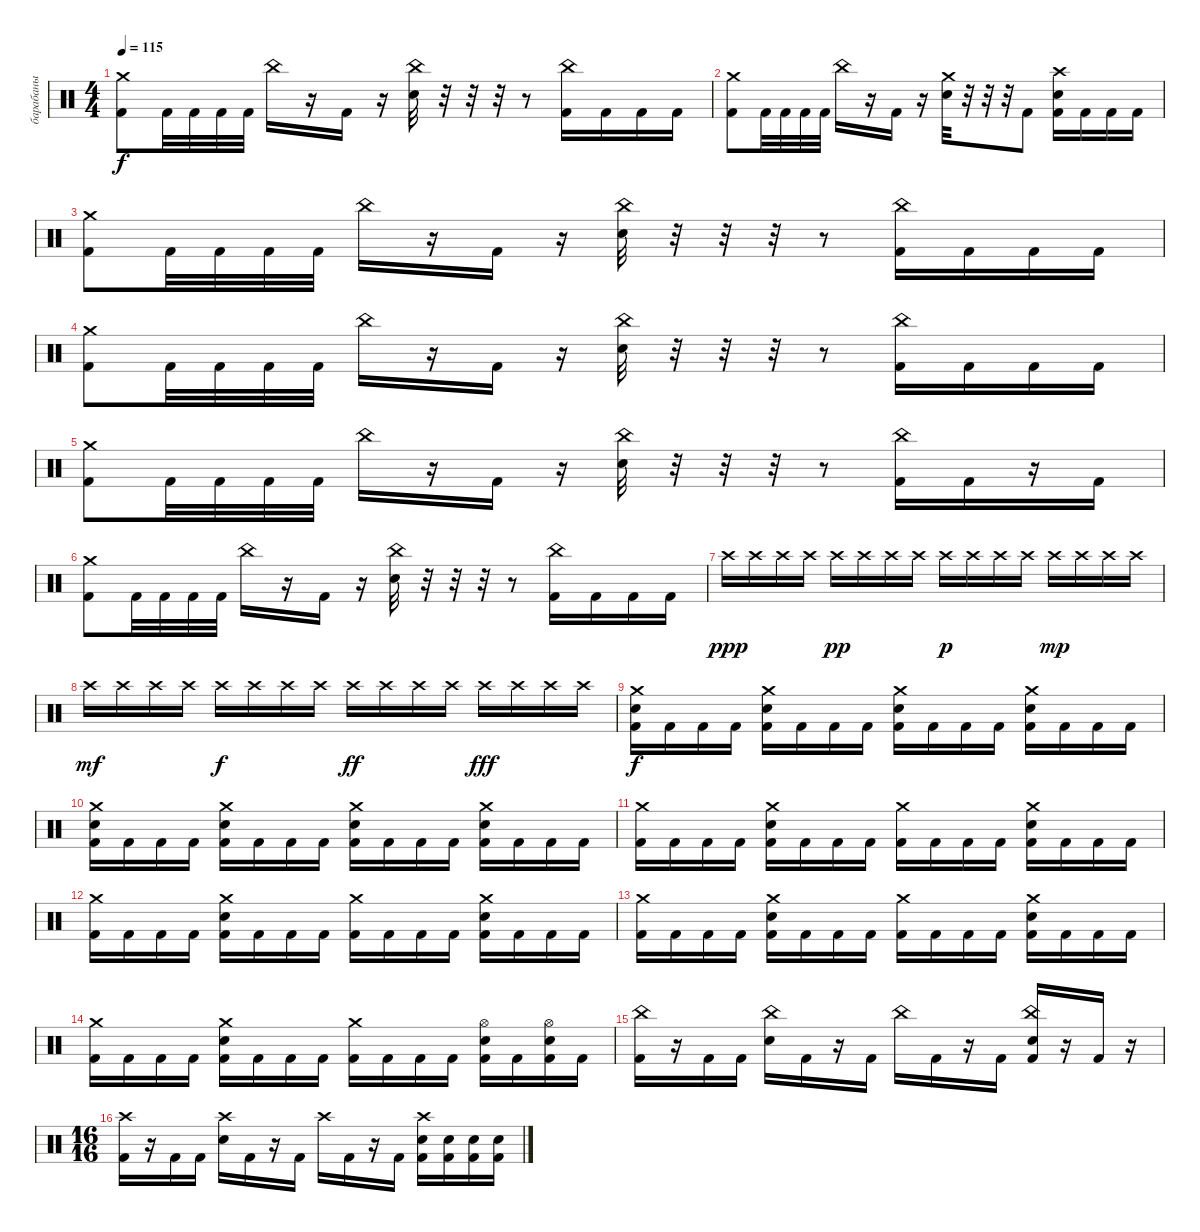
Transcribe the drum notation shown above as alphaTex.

\track ("барабаны" "барабаны") {instrument percussion}
\staff {score}
\articulation defaults
\ts (4 4)
\tempo 115
\clef neutral
\ks c
("Crash medium (hit)" "Kick (hit) 2").8{dy f} "Kick (hit) 2".32 "Kick (hit) 2".32 "Kick (hit) 2".32 "Kick (hit) 2".32 "China (hit)".16 r.16 "Kick (hit) 2".16 r.16 ("China (hit)" "Snare (hit) 2").32 r.32 r.32 r.32 r.8 ("China (hit)" "Kick (hit) 2").16 "Kick (hit) 2".16 "Kick (hit) 2".16 "Kick (hit) 2".16 |
("Crash medium (hit)" "Kick (hit) 2").8 "Kick (hit) 2".32 "Kick (hit) 2".32 "Kick (hit) 2".32 "Kick (hit) 2".32 "China (hit)".16 r.16 "Kick (hit) 2".16 r.16 ("Crash medium (hit)" "Snare (hit) 2").32 r.32 r.32 r.32 "Kick (hit) 2".8 ("Crash high (hit)" "Snare (hit) 2" "Kick (hit) 2").16 "Kick (hit) 2".16 "Kick (hit) 2".16 "Kick (hit) 2".16 |
("Crash medium (hit)" "Kick (hit) 2").8 "Kick (hit) 2".32 "Kick (hit) 2".32 "Kick (hit) 2".32 "Kick (hit) 2".32 "China (hit)".16 r.16 "Kick (hit) 2".16 r.16 ("China (hit)" "Snare (hit) 2").32 r.32 r.32 r.32 r.8 ("China (hit)" "Kick (hit) 2").16 "Kick (hit) 2".16 "Kick (hit) 2".16 "Kick (hit) 2".16 |
("Crash medium (hit)" "Kick (hit) 2").8 "Kick (hit) 2".32 "Kick (hit) 2".32 "Kick (hit) 2".32 "Kick (hit) 2".32 "China (hit)".16 r.16 "Kick (hit) 2".16 r.16 ("China (hit)" "Snare (hit) 2").32 r.32 r.32 r.32 r.8 ("China (hit)" "Kick (hit) 2").16 "Kick (hit) 2".16 "Kick (hit) 2".16 "Kick (hit) 2".16 |
("Crash medium (hit)" "Kick (hit) 2").8 "Kick (hit) 2".32 "Kick (hit) 2".32 "Kick (hit) 2".32 "Kick (hit) 2".32 "China (hit)".16 r.16 "Kick (hit) 2".16 r.16 ("China (hit)" "Snare (hit) 2").32 r.32 r.32 r.32 r.8 ("China (hit)" "Kick (hit) 2").16 "Kick (hit) 2".16 r.16 "Kick (hit) 2".16 |
("Crash medium (hit)" "Kick (hit) 2").8 "Kick (hit) 2".32 "Kick (hit) 2".32 "Kick (hit) 2".32 "Kick (hit) 2".32 "China (hit)".16 r.16 "Kick (hit) 2".16 r.16 ("China (hit)" "Snare (hit) 2").32 r.32 r.32 r.32 r.8 ("China (hit)" "Kick (hit) 2").16 "Kick (hit) 2".16 "Kick (hit) 2".16 "Kick (hit) 2".16 |
"Crash high (hit)".16{dy ppp} "Crash high (hit)".16 "Crash high (hit)".16 "Crash high (hit)".16 "Crash high (hit)".16{dy pp} "Crash high (hit)".16 "Crash high (hit)".16 "Crash high (hit)".16 "Crash high (hit)".16{dy p} "Crash high (hit)".16 "Crash high (hit)".16 "Crash high (hit)".16 "Crash high (hit)".16{dy mp} "Crash high (hit)".16 "Crash high (hit)".16 "Crash high (hit)".16 |
"Crash high (hit)".16{dy mf} "Crash high (hit)".16 "Crash high (hit)".16 "Crash high (hit)".16 "Crash high (hit)".16{dy f} "Crash high (hit)".16 "Crash high (hit)".16 "Crash high (hit)".16 "Crash high (hit)".16{dy ff} "Crash high (hit)".16 "Crash high (hit)".16 "Crash high (hit)".16 "Crash high (hit)".16{dy fff} "Crash high (hit)".16 "Crash high (hit)".16 "Crash high (hit)".16 |
("Kick (hit) 2" "Crash medium (hit)" "Snare (hit) 2").16{dy f} "Kick (hit) 2".16 "Kick (hit) 2".16 "Kick (hit) 2".16 ("Kick (hit) 2" "Crash medium (hit)" "Snare (hit) 2").16 "Kick (hit) 2".16 "Kick (hit) 2".16 "Kick (hit) 2".16 ("Kick (hit) 2" "Crash medium (hit)" "Snare (hit) 2").16 "Kick (hit) 2".16 "Kick (hit) 2".16 "Kick (hit) 2".16 ("Kick (hit) 2" "Crash medium (hit)" "Snare (hit) 2").16 "Kick (hit) 2".16 "Kick (hit) 2".16 "Kick (hit) 2".16 |
("Kick (hit) 2" "Crash medium (hit)" "Snare (hit) 2").16 "Kick (hit) 2".16 "Kick (hit) 2".16 "Kick (hit) 2".16 ("Kick (hit) 2" "Crash medium (hit)" "Snare (hit) 2").16 "Kick (hit) 2".16 "Kick (hit) 2".16 "Kick (hit) 2".16 ("Kick (hit) 2" "Crash medium (hit)" "Snare (hit) 2").16 "Kick (hit) 2".16 "Kick (hit) 2".16 "Kick (hit) 2".16 ("Kick (hit) 2" "Crash medium (hit)" "Snare (hit) 2").16 "Kick (hit) 2".16 "Kick (hit) 2".16 "Kick (hit) 2".16 |
("Crash medium (hit)" "Kick (hit) 2").16 "Kick (hit) 2".16 "Kick (hit) 2".16 "Kick (hit) 2".16 ("Crash medium (hit)" "Snare (hit) 2" "Kick (hit) 2").16 "Kick (hit) 2".16 "Kick (hit) 2".16 "Kick (hit) 2".16 ("Crash medium (hit)" "Kick (hit) 2").16 "Kick (hit) 2".16 "Kick (hit) 2".16 "Kick (hit) 2".16 ("Crash medium (hit)" "Snare (hit) 2" "Kick (hit) 2").16 "Kick (hit) 2".16 "Kick (hit) 2".16 "Kick (hit) 2".16 |
("Crash medium (hit)" "Kick (hit) 2").16 "Kick (hit) 2".16 "Kick (hit) 2".16 "Kick (hit) 2".16 ("Crash medium (hit)" "Snare (hit) 2" "Kick (hit) 2").16 "Kick (hit) 2".16 "Kick (hit) 2".16 "Kick (hit) 2".16 ("Crash medium (hit)" "Kick (hit) 2").16 "Kick (hit) 2".16 "Kick (hit) 2".16 "Kick (hit) 2".16 ("Crash medium (hit)" "Snare (hit) 2" "Kick (hit) 2").16 "Kick (hit) 2".16 "Kick (hit) 2".16 "Kick (hit) 2".16 |
("Crash medium (hit)" "Kick (hit) 2").16 "Kick (hit) 2".16 "Kick (hit) 2".16 "Kick (hit) 2".16 ("Crash medium (hit)" "Snare (hit) 2" "Kick (hit) 2").16 "Kick (hit) 2".16 "Kick (hit) 2".16 "Kick (hit) 2".16 ("Crash medium (hit)" "Kick (hit) 2").16 "Kick (hit) 2".16 "Kick (hit) 2".16 "Kick (hit) 2".16 ("Crash medium (hit)" "Snare (hit) 2" "Kick (hit) 2").16 "Kick (hit) 2".16 "Kick (hit) 2".16 "Kick (hit) 2".16 |
("Crash medium (hit)" "Kick (hit) 2").16 "Kick (hit) 2".16 "Kick (hit) 2".16 "Kick (hit) 2".16 ("Crash medium (hit)" "Snare (hit) 2" "Kick (hit) 2").16 "Kick (hit) 2".16 "Kick (hit) 2".16 "Kick (hit) 2".16 ("Crash medium (hit)" "Kick (hit) 2").16 "Kick (hit) 2".16 "Kick (hit) 2".16 "Kick (hit) 2".16 ("Hi-Hat (open)" "Snare (hit) 2" "Kick (hit) 2").16 "Kick (hit) 2".16 ("Hi-Hat (open)" "Snare (hit) 2" "Kick (hit) 2").16 "Kick (hit) 2".16 |
("China (hit)" "Kick (hit) 2").16 r.16 "Kick (hit) 2".16 "Kick (hit) 2".16 ("China (hit)" "Snare (hit) 2").16 "Kick (hit) 2".16 r.16 "Kick (hit) 2".16 "China (hit)".16 "Kick (hit) 2".16 r.16 "Kick (hit) 2".16 ("China (hit)" "Snare (hit) 2" "Kick (hit) 2").16 r.16 "Kick (hit) 2".16 r.16 |
\ts (16 16)
("Crash high (hit)" "Kick (hit) 2").16 r.16 "Kick (hit) 2".16 "Kick (hit) 2".16 ("Crash high (hit)" "Snare (hit) 2").16 "Kick (hit) 2".16 r.16 "Kick (hit) 2".16 "Crash high (hit)".16 "Kick (hit) 2".16 r.16 "Kick (hit) 2".16 ("Crash high (hit)" "Snare (hit) 2" "Kick (hit) 2").16 ("Snare (hit) 2" "Kick (hit) 2").16 ("Snare (hit) 2" "Kick (hit) 2").16 ("Snare (hit) 2" "Kick (hit) 2").16
